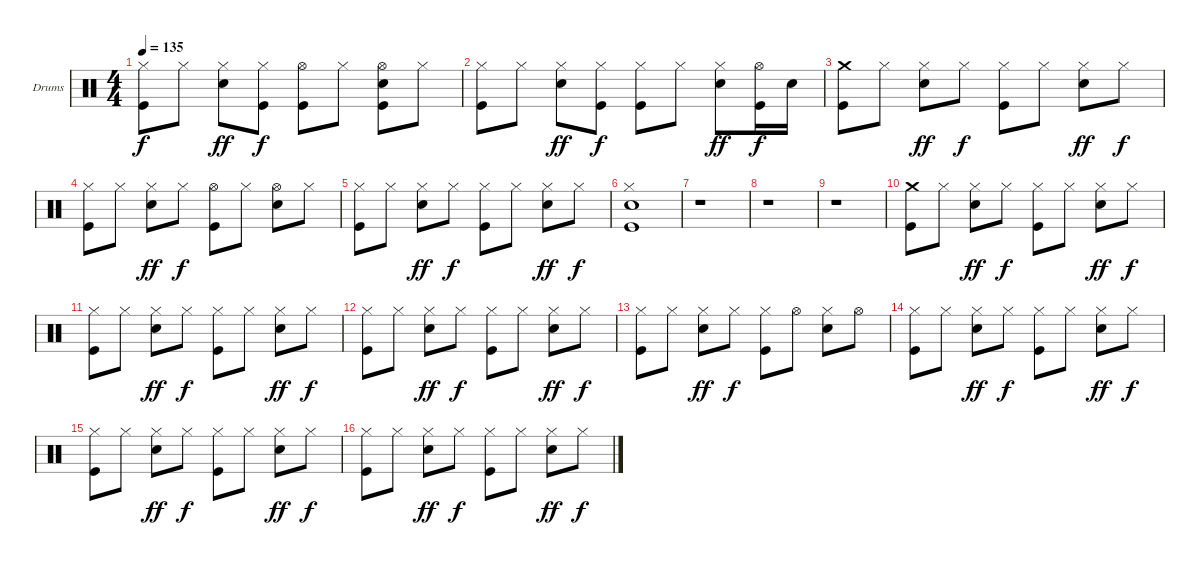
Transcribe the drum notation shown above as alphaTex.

\bracketExtendMode groupsimilarinstruments
\firstSystemTrackNameOrientation horizontal
\otherSystemsTrackNameOrientation horizontal
\track ("Drumkit" "Drums") {instrument percussion}
\staff {score}
\articulation defaults
\ts (4 4)
\tempo 135
\clef neutral
\ks c
("Hi-Hat (closed)" "Kick (hit)").8{dy f} "Hi-Hat (closed)".8 ("Hi-Hat (closed)" "Snare (hit) 2").8{dy ff} ("Hi-Hat (closed)" "Kick (hit)").8{dy f} ("Hi-Hat (open)" "Kick (hit)").8 "Hi-Hat (closed)".8 ("Hi-Hat (open)" "Snare (hit) 2" "Kick (hit)").8 "Hi-Hat (closed)".8 |
("Hi-Hat (closed)" "Kick (hit)").8 "Hi-Hat (closed)".8 ("Hi-Hat (closed)" "Snare (hit) 2").8{dy ff} ("Hi-Hat (closed)" "Kick (hit)").8{dy f} ("Hi-Hat (closed)" "Kick (hit)").8 "Hi-Hat (closed)".8 ("Hi-Hat (closed)" "Snare (hit) 2").8{dy ff} ("Hi-Hat (open)" "Kick (hit)").16{dy f} "Snare (hit) 2".16 |
("Crash medium (hit)" "Kick (hit)").8 "Hi-Hat (closed)".8 ("Hi-Hat (closed)" "Snare (hit) 2").8{dy ff} "Hi-Hat (closed)".8{dy f} ("Hi-Hat (closed)" "Kick (hit)").8 "Hi-Hat (closed)".8 ("Hi-Hat (closed)" "Snare (hit) 2").8{dy ff} "Hi-Hat (closed)".8{dy f} |
("Hi-Hat (closed)" "Kick (hit)").8 "Hi-Hat (closed)".8 ("Hi-Hat (closed)" "Snare (hit) 2").8{dy ff} "Hi-Hat (closed)".8{dy f} ("Hi-Hat (open)" "Kick (hit)").8 "Hi-Hat (closed)".8 ("Hi-Hat (open)" "Snare (hit) 2").8 "Hi-Hat (closed)".8 |
("Hi-Hat (closed)" "Kick (hit)").8 "Hi-Hat (closed)".8 ("Hi-Hat (closed)" "Snare (hit) 2").8{dy ff} "Hi-Hat (closed)".8{dy f} ("Hi-Hat (closed)" "Kick (hit)").8 "Hi-Hat (closed)".8 ("Hi-Hat (closed)" "Snare (hit) 2").8{dy ff} "Hi-Hat (closed)".8{dy f} |
("Hi-Hat (closed)" "Snare (hit) 2" "Kick (hit)").1 |
r.1 |
r.1 |
r.1 |
("Crash medium (hit)" "Kick (hit)").8 "Hi-Hat (closed)".8 ("Hi-Hat (closed)" "Snare (hit) 2").8{dy ff} "Hi-Hat (closed)".8{dy f} ("Hi-Hat (closed)" "Kick (hit)").8 "Hi-Hat (closed)".8 ("Hi-Hat (closed)" "Snare (hit) 2").8{dy ff} "Hi-Hat (closed)".8{dy f} |
("Hi-Hat (closed)" "Kick (hit)").8 "Hi-Hat (closed)".8 ("Hi-Hat (closed)" "Snare (hit) 2").8{dy ff} "Hi-Hat (closed)".8{dy f} ("Hi-Hat (closed)" "Kick (hit)").8 "Hi-Hat (closed)".8 ("Hi-Hat (closed)" "Snare (hit) 2").8{dy ff} "Hi-Hat (closed)".8{dy f} |
("Hi-Hat (closed)" "Kick (hit)").8 "Hi-Hat (closed)".8 ("Hi-Hat (closed)" "Snare (hit) 2").8{dy ff} "Hi-Hat (closed)".8{dy f} ("Hi-Hat (closed)" "Kick (hit)").8 "Hi-Hat (closed)".8 ("Hi-Hat (closed)" "Snare (hit) 2").8{dy ff} "Hi-Hat (closed)".8{dy f} |
("Hi-Hat (closed)" "Kick (hit)").8 "Hi-Hat (closed)".8 ("Hi-Hat (closed)" "Snare (hit) 2").8{dy ff} "Hi-Hat (closed)".8{dy f} ("Hi-Hat (closed)" "Kick (hit)").8 "Hi-Hat (open)".8 ("Hi-Hat (closed)" "Snare (hit) 2").8 "Hi-Hat (open)".8 |
("Hi-Hat (closed)" "Kick (hit)").8 "Hi-Hat (closed)".8 ("Hi-Hat (closed)" "Snare (hit) 2").8{dy ff} "Hi-Hat (closed)".8{dy f} ("Hi-Hat (closed)" "Kick (hit)").8 "Hi-Hat (closed)".8 ("Hi-Hat (closed)" "Snare (hit) 2").8{dy ff} "Hi-Hat (closed)".8{dy f} |
("Hi-Hat (closed)" "Kick (hit)").8 "Hi-Hat (closed)".8 ("Hi-Hat (closed)" "Snare (hit) 2").8{dy ff} "Hi-Hat (closed)".8{dy f} ("Hi-Hat (closed)" "Kick (hit)").8 "Hi-Hat (closed)".8 ("Hi-Hat (closed)" "Snare (hit) 2").8{dy ff} "Hi-Hat (closed)".8{dy f} |
("Hi-Hat (closed)" "Kick (hit)").8 "Hi-Hat (closed)".8 ("Hi-Hat (closed)" "Snare (hit) 2").8{dy ff} "Hi-Hat (closed)".8{dy f} ("Hi-Hat (closed)" "Kick (hit)").8 "Hi-Hat (closed)".8 ("Hi-Hat (closed)" "Snare (hit) 2").8{dy ff} "Hi-Hat (closed)".8{dy f}
